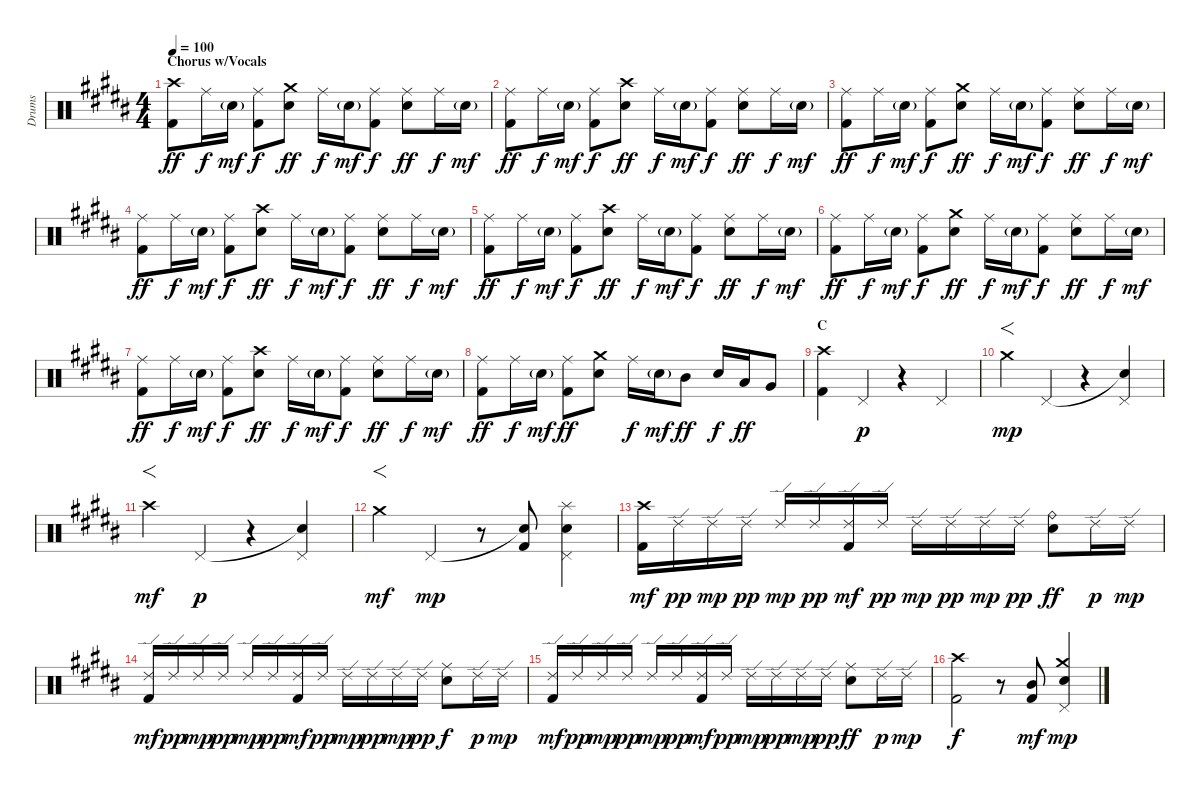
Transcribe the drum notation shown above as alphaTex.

\track ("Drums" "Drums") {instrument percussion}
\staff {score}
\articulation defaults
\ts (4 4)
\section ("" "Chorus w/Vocals ")
\tempo 100
\clef neutral
\ks b
("Crash high (hit)" "Kick (hit) 2").8{dy ff} "Ride (middle)".16{dy f} "Snare (hit) 2"{g}.16{dy mf} ("Ride (middle)" "Kick (hit) 2").8{dy f} ("Crash medium (hit)" "Snare (hit) 2").8{dy ff} "Ride (middle)".16{dy f} "Snare (hit) 2"{g}.16{dy mf} ("Ride (middle)" "Kick (hit) 2").8{dy f} ("Ride (middle)" "Snare (hit) 2").8{dy ff} "Ride (middle)".16{dy f} "Snare (hit) 2"{g}.16{dy mf} |
("Ride (middle)" "Kick (hit) 2").8{dy ff} "Ride (middle)".16{dy f} "Snare (hit) 2"{g}.16{dy mf} ("Ride (middle)" "Kick (hit) 2").8{dy f} ("Crash high (hit)" "Snare (hit) 2").8{dy ff} "Ride (middle)".16{dy f} "Snare (hit) 2"{g}.16{dy mf} ("Ride (middle)" "Kick (hit) 2").8{dy f} ("Ride (middle)" "Snare (hit) 2").8{dy ff} "Ride (middle)".16{dy f} "Snare (hit) 2"{g}.16{dy mf} |
("Ride (middle)" "Kick (hit) 2").8{dy ff} "Ride (middle)".16{dy f} "Snare (hit) 2"{g}.16{dy mf} ("Ride (middle)" "Kick (hit) 2").8{dy f} ("Crash medium (hit)" "Snare (hit) 2").8{dy ff} "Ride (middle)".16{dy f} "Snare (hit) 2"{g}.16{dy mf} ("Ride (middle)" "Kick (hit) 2").8{dy f} ("Ride (middle)" "Snare (hit) 2").8{dy ff} "Ride (middle)".16{dy f} "Snare (hit) 2"{g}.16{dy mf} |
("Ride (middle)" "Kick (hit) 2").8{dy ff} "Ride (middle)".16{dy f} "Snare (hit) 2"{g}.16{dy mf} ("Ride (middle)" "Kick (hit) 2").8{dy f} ("Crash high (hit)" "Snare (hit) 2").8{dy ff} "Ride (middle)".16{dy f} "Snare (hit) 2"{g}.16{dy mf} ("Ride (middle)" "Kick (hit) 2").8{dy f} ("Ride (middle)" "Snare (hit) 2").8{dy ff} "Ride (middle)".16{dy f} "Snare (hit) 2"{g}.16{dy mf} |
("Ride (middle)" "Kick (hit) 2").8{dy ff} "Ride (middle)".16{dy f} "Snare (hit) 2"{g}.16{dy mf} ("Ride (middle)" "Kick (hit) 2").8{dy f} ("Crash high (hit)" "Snare (hit) 2").8{dy ff} "Ride (middle)".16{dy f} "Snare (hit) 2"{g}.16{dy mf} ("Ride (middle)" "Kick (hit) 2").8{dy f} ("Ride (middle)" "Snare (hit) 2").8{dy ff} "Ride (middle)".16{dy f} "Snare (hit) 2"{g}.16{dy mf} |
("Ride (middle)" "Kick (hit) 2").8{dy ff} "Ride (middle)".16{dy f} "Snare (hit) 2"{g}.16{dy mf} ("Ride (middle)" "Kick (hit) 2").8{dy f} ("Crash medium (hit)" "Snare (hit) 2").8{dy ff} "Ride (middle)".16{dy f} "Snare (hit) 2"{g}.16{dy mf} ("Ride (middle)" "Kick (hit) 2").8{dy f} ("Ride (middle)" "Snare (hit) 2").8{dy ff} "Ride (middle)".16{dy f} "Snare (hit) 2"{g}.16{dy mf} |
("Ride (middle)" "Kick (hit) 2").8{dy ff} "Ride (middle)".16{dy f} "Snare (hit) 2"{g}.16{dy mf} ("Ride (middle)" "Kick (hit) 2").8{dy f} ("Crash high (hit)" "Snare (hit) 2").8{dy ff} "Ride (middle)".16{dy f} "Snare (hit) 2"{g}.16{dy mf} ("Ride (middle)" "Kick (hit) 2").8{dy f} ("Ride (middle)" "Snare (hit) 2").8{dy ff} "Ride (middle)".16{dy f} "Snare (hit) 2"{g}.16{dy mf} |
("Ride (middle)" "Kick (hit) 2").8{dy ff} "Ride (middle)".16{dy f} "Snare (hit) 2"{g}.16{dy mf} ("Ride (middle)" "Kick (hit) 2").8{dy ff} ("Crash medium (hit)" "Snare (hit) 2").8 "Ride (middle)".16{dy f} "Snare (hit) 2"{g}.16{dy mf} "Mid Tom (hit)".8{dy ff} "Snare (hit) 2".16{dy f} "Low Tom (hit)".16{dy ff} "Very Low Tom (hit)".8 |
\section ("" "C")
("Crash high (hit)" "Kick (hit) 2").4 "Pedal Hi-Hat (hit)".4{dy p} r.4 "Pedal Hi-Hat (hit)".4 |
"Crash medium (hit)".4{f dy mp} "Pedal Hi-Hat (hit)".4 r.4 ("Snare (hit)"{t} "Pedal Hi-Hat (hit)").4 |
"Crash high (hit)".4{f dy mf} "Pedal Hi-Hat (hit)".4{dy p} r.4 ("Snare (hit)"{t} "Pedal Hi-Hat (hit)").4 |
"Crash medium (hit)".4{f dy mf} "Pedal Hi-Hat (hit)".4{dy mp} r.8 ("Snare (hit)"{t} "Kick (hit) 2").8 ("Splash (hit)" "Snare (hit) 2" "Pedal Hi-Hat (hit)").4 |
("Crash high (hit)" "Kick (hit) 2").16{dy mf} "Ride (edge) 2".16{dy pp} "Ride (edge) 2".16{dy mp} "Ride (edge) 2".16{dy pp} "Ride (edge) 2".16{dy mp} "Ride (edge) 2".16{dy pp} ("Ride (edge) 2" "Kick (hit) 2").16{dy mf} "Ride (edge) 2".16{dy pp} "Ride (edge) 2".16{dy mp} "Ride (edge) 2".16{dy pp} "Ride (edge) 2".16{dy mp} "Ride (edge) 2".16{dy pp} ("Ride (bell)" "Snare (hit) 2").8{dy ff} "Ride (edge) 2".16{dy p} "Ride (edge) 2".16{dy mp} |
("Ride (edge) 2" "Kick (hit) 2").16{dy mf} "Ride (edge) 2".16{dy pp} "Ride (edge) 2".16{dy mp} "Ride (edge) 2".16{dy pp} "Ride (edge) 2".16{dy mp} "Ride (edge) 2".16{dy pp} ("Ride (edge) 2" "Kick (hit) 2").16{dy mf} "Ride (edge) 2".16{dy pp} "Ride (edge) 2".16{dy mp} "Ride (edge) 2".16{dy pp} "Ride (edge) 2".16{dy mp} "Ride (edge) 2".16{dy pp} ("Ride (middle)" "Snare (hit) 2").8{dy f} "Ride (edge) 2".16{dy p} "Ride (edge) 2".16{dy mp} |
("Ride (edge) 2" "Kick (hit) 2").16{dy mf} "Ride (edge) 2".16{dy pp} "Ride (edge) 2".16{dy mp} "Ride (edge) 2".16{dy pp} "Ride (edge) 2".16{dy mp} "Ride (edge) 2".16{dy pp} ("Ride (edge) 2" "Kick (hit) 2").16{dy mf} "Ride (edge) 2".16{dy pp} "Ride (edge) 2".16{dy mp} "Ride (edge) 2".16{dy pp} "Ride (edge) 2".16{dy mp} "Ride (edge) 2".16{dy pp} ("Ride (middle)" "Snare (hit) 2").8{dy ff} "Ride (edge) 2".16{dy p} "Ride (edge) 2".16{dy mp} |
("Crash high (hit)" "Kick (hit) 2").2{dy f} r.8 ("Mid Tom (hit)" "Kick (hit) 2").8{dy mf} ("Crash medium (hit)" "Snare (hit) 2" "Pedal Hi-Hat (hit)").4{dy mp}
